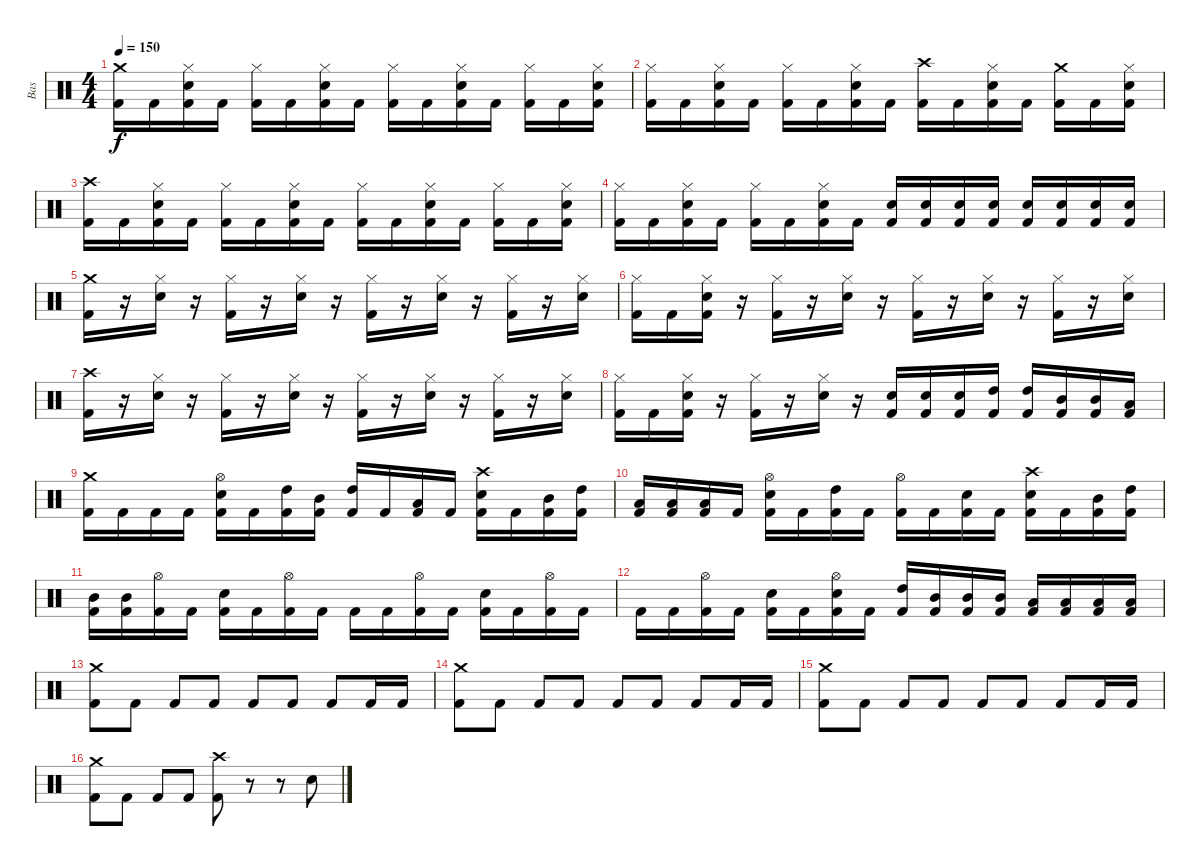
\track ("Bas" "Bas") {instrument percussion}
\staff {score}
\articulation defaults
\ts (4 4)
\tempo 150
\clef neutral
\ks c
("Crash medium (hit)" "Kick (hit) 2").16{dy f} "Kick (hit) 2".16 ("Hi-Hat (closed)" "Snare (hit) 2" "Kick (hit) 2").16 "Kick (hit) 2".16 ("Hi-Hat (closed)" "Kick (hit) 2").16 "Kick (hit) 2".16 ("Hi-Hat (closed)" "Snare (hit) 2" "Kick (hit) 2").16 "Kick (hit) 2".16 ("Hi-Hat (closed)" "Kick (hit) 2").16 "Kick (hit) 2".16 ("Hi-Hat (closed)" "Snare (hit) 2" "Kick (hit) 2").16 "Kick (hit) 2".16 ("Hi-Hat (closed)" "Kick (hit) 2").16 "Kick (hit) 2".16 ("Hi-Hat (closed)" "Snare (hit) 2" "Kick (hit) 2").16 |
("Hi-Hat (closed)" "Kick (hit) 2").16 "Kick (hit) 2".16 ("Hi-Hat (closed)" "Snare (hit) 2" "Kick (hit) 2").16 "Kick (hit) 2".16 ("Hi-Hat (closed)" "Kick (hit) 2").16 "Kick (hit) 2".16 ("Hi-Hat (closed)" "Snare (hit) 2" "Kick (hit) 2").16 "Kick (hit) 2".16 ("Crash high (hit)" "Kick (hit) 2").16 "Kick (hit) 2".16 ("Hi-Hat (closed)" "Snare (hit) 2" "Kick (hit) 2").16 "Kick (hit) 2".16 ("Crash medium (hit)" "Kick (hit) 2").16 "Kick (hit) 2".16 ("Hi-Hat (closed)" "Snare (hit) 2" "Kick (hit) 2").16 |
("Crash high (hit)" "Kick (hit) 2").16 "Kick (hit) 2".16 ("Hi-Hat (closed)" "Snare (hit) 2" "Kick (hit) 2").16 "Kick (hit) 2".16 ("Hi-Hat (closed)" "Kick (hit) 2").16 "Kick (hit) 2".16 ("Hi-Hat (closed)" "Snare (hit) 2" "Kick (hit) 2").16 "Kick (hit) 2".16 ("Hi-Hat (closed)" "Kick (hit) 2").16 "Kick (hit) 2".16 ("Hi-Hat (closed)" "Snare (hit) 2" "Kick (hit) 2").16 "Kick (hit) 2".16 ("Hi-Hat (closed)" "Kick (hit) 2").16 "Kick (hit) 2".16 ("Hi-Hat (closed)" "Snare (hit) 2" "Kick (hit) 2").16 |
("Hi-Hat (closed)" "Kick (hit) 2").16 "Kick (hit) 2".16 ("Hi-Hat (closed)" "Snare (hit) 2" "Kick (hit) 2").16 "Kick (hit) 2".16 ("Hi-Hat (closed)" "Kick (hit) 2").16 "Kick (hit) 2".16 ("Hi-Hat (closed)" "Snare (hit) 2" "Kick (hit) 2").16 "Kick (hit) 2".16 ("Snare (hit) 2" "Kick (hit) 2").16 ("Snare (hit) 2" "Kick (hit) 2").16 ("Snare (hit) 2" "Kick (hit) 2").16 ("Snare (hit) 2" "Kick (hit) 2").16 ("Snare (hit) 2" "Kick (hit) 2").16 ("Snare (hit) 2" "Kick (hit) 2").16 ("Snare (hit) 2" "Kick (hit) 2").16 ("Snare (hit) 2" "Kick (hit) 2").16 |
("Crash medium (hit)" "Kick (hit) 2").16 r.16 ("Hi-Hat (closed)" "Snare (hit) 2").16 r.16 ("Hi-Hat (closed)" "Kick (hit) 2").16 r.16 ("Hi-Hat (closed)" "Snare (hit) 2").16 r.16 ("Hi-Hat (closed)" "Kick (hit) 2").16 r.16 ("Hi-Hat (closed)" "Snare (hit) 2").16 r.16 ("Hi-Hat (closed)" "Kick (hit) 2").16 r.16 ("Hi-Hat (closed)" "Snare (hit) 2").16 |
("Hi-Hat (closed)" "Kick (hit) 2").16 "Kick (hit) 2".16 ("Hi-Hat (closed)" "Snare (hit) 2" "Kick (hit) 2").16 r.16 ("Hi-Hat (closed)" "Kick (hit) 2").16 r.16 ("Hi-Hat (closed)" "Snare (hit) 2").16 r.16 ("Hi-Hat (closed)" "Kick (hit) 2").16 r.16 ("Hi-Hat (closed)" "Snare (hit) 2").16 r.16 ("Hi-Hat (closed)" "Kick (hit) 2").16 r.16 ("Hi-Hat (closed)" "Snare (hit) 2").16 |
("Crash high (hit)" "Kick (hit) 2").16 r.16 ("Hi-Hat (closed)" "Snare (hit) 2").16 r.16 ("Hi-Hat (closed)" "Kick (hit) 2").16 r.16 ("Hi-Hat (closed)" "Snare (hit) 2").16 r.16 ("Hi-Hat (closed)" "Kick (hit) 2").16 r.16 ("Hi-Hat (closed)" "Snare (hit) 2").16 r.16 ("Hi-Hat (closed)" "Kick (hit) 2").16 r.16 ("Hi-Hat (closed)" "Snare (hit) 2").16 |
("Hi-Hat (closed)" "Kick (hit) 2").16 "Kick (hit) 2".16 ("Hi-Hat (closed)" "Snare (hit) 2" "Kick (hit) 2").16 r.16 ("Hi-Hat (closed)" "Kick (hit) 2").16 r.16 ("Hi-Hat (closed)" "Snare (hit) 2").16 r.16 ("Snare (hit) 2" "Kick (hit) 2").16 ("Snare (hit) 2" "Kick (hit) 2").16 ("Snare (hit) 2" "Kick (hit) 2").16 ("High Tom (hit)" "Kick (hit) 2").16 ("High Tom (hit)" "Kick (hit) 2").16 ("Mid Tom (hit)" "Kick (hit) 2").16 ("Mid Tom (hit)" "Kick (hit) 2").16 ("Low Tom (hit)" "Kick (hit) 2").16 |
("Crash medium (hit)" "Kick (hit) 2").16 "Kick (hit) 2".16 "Kick (hit) 2".16 "Kick (hit) 2".16 ("Hi-Hat (open)" "Snare (hit) 2" "Kick (hit) 2").16 "Kick (hit) 2".16 ("High Tom (hit)" "Kick (hit) 2").16 ("Mid Tom (hit)" "Kick (hit) 2").16 ("High Tom (hit)" "Kick (hit) 2").16 "Kick (hit) 2".16 ("Low Tom (hit)" "Kick (hit) 2").16 "Kick (hit) 2".16 ("Crash high (hit)" "Snare (hit) 2" "Kick (hit) 2").16 "Kick (hit) 2".16 ("Mid Tom (hit)" "Kick (hit) 2").16 ("High Tom (hit)" "Kick (hit) 2").16 |
("Low Tom (hit)" "Kick (hit) 2").16 ("Low Tom (hit)" "Kick (hit) 2").16 ("Low Tom (hit)" "Kick (hit) 2").16 "Kick (hit) 2".16 ("Hi-Hat (open)" "Snare (hit) 2" "Kick (hit) 2").16 "Kick (hit) 2".16 ("High Tom (hit)" "Kick (hit) 2").16 "Kick (hit) 2".16 ("Hi-Hat (open)" "Kick (hit) 2").16 "Kick (hit) 2".16 ("Snare (hit) 2" "Kick (hit) 2").16 "Kick (hit) 2".16 ("Crash high (hit)" "Snare (hit) 2" "Kick (hit) 2").16 "Kick (hit) 2".16 ("Mid Tom (hit)" "Kick (hit) 2").16 ("High Tom (hit)" "Kick (hit) 2").16 |
("Mid Tom (hit)" "Kick (hit) 2").16 ("Mid Tom (hit)" "Kick (hit) 2").16 ("Hi-Hat (open)" "Kick (hit) 2").16 "Kick (hit) 2".16 ("Snare (hit) 2" "Kick (hit) 2").16 "Kick (hit) 2".16 ("Hi-Hat (open)" "Kick (hit) 2").16 "Kick (hit) 2".16 "Kick (hit) 2".16 "Kick (hit) 2".16 ("Hi-Hat (open)" "Kick (hit) 2").16 "Kick (hit) 2".16 ("Snare (hit) 2" "Kick (hit) 2").16 "Kick (hit) 2".16 ("Hi-Hat (open)" "Kick (hit) 2").16 "Kick (hit) 2".16 |
"Kick (hit) 2".16 "Kick (hit) 2".16 ("Hi-Hat (open)" "Kick (hit) 2").16 "Kick (hit) 2".16 ("Snare (hit) 2" "Kick (hit) 2").16 "Kick (hit) 2".16 ("Hi-Hat (open)" "Snare (hit) 2" "Kick (hit) 2").16 "Kick (hit) 2".16 ("High Tom (hit)" "Kick (hit) 2").16 ("Mid Tom (hit)" "Kick (hit) 2").16 ("Mid Tom (hit)" "Kick (hit) 2").16 ("Mid Tom (hit)" "Kick (hit) 2").16 ("Low Tom (hit)" "Kick (hit) 2").16 ("Low Tom (hit)" "Kick (hit) 2").16 ("Low Tom (hit)" "Kick (hit) 2").16 ("Low Tom (hit)" "Kick (hit) 2").16 |
("Crash medium (hit)" "Kick (hit) 2").8 "Kick (hit) 2".8 "Kick (hit) 2".8 "Kick (hit) 2".8 "Kick (hit) 2".8 "Kick (hit) 2".8 "Kick (hit) 2".8 "Kick (hit) 2".16 "Kick (hit) 2".16 |
("Crash medium (hit)" "Kick (hit) 2").8 "Kick (hit) 2".8 "Kick (hit) 2".8 "Kick (hit) 2".8 "Kick (hit) 2".8 "Kick (hit) 2".8 "Kick (hit) 2".8 "Kick (hit) 2".16 "Kick (hit) 2".16 |
("Crash medium (hit)" "Kick (hit) 2").8 "Kick (hit) 2".8 "Kick (hit) 2".8 "Kick (hit) 2".8 "Kick (hit) 2".8 "Kick (hit) 2".8 "Kick (hit) 2".8 "Kick (hit) 2".16 "Kick (hit) 2".16 |
("Crash medium (hit)" "Kick (hit) 2").8 "Kick (hit) 2".8 "Kick (hit) 2".8 "Kick (hit) 2".8 ("Crash high (hit)" "Kick (hit) 2").8 r.8 r.8 "Snare (hit) 2".8
